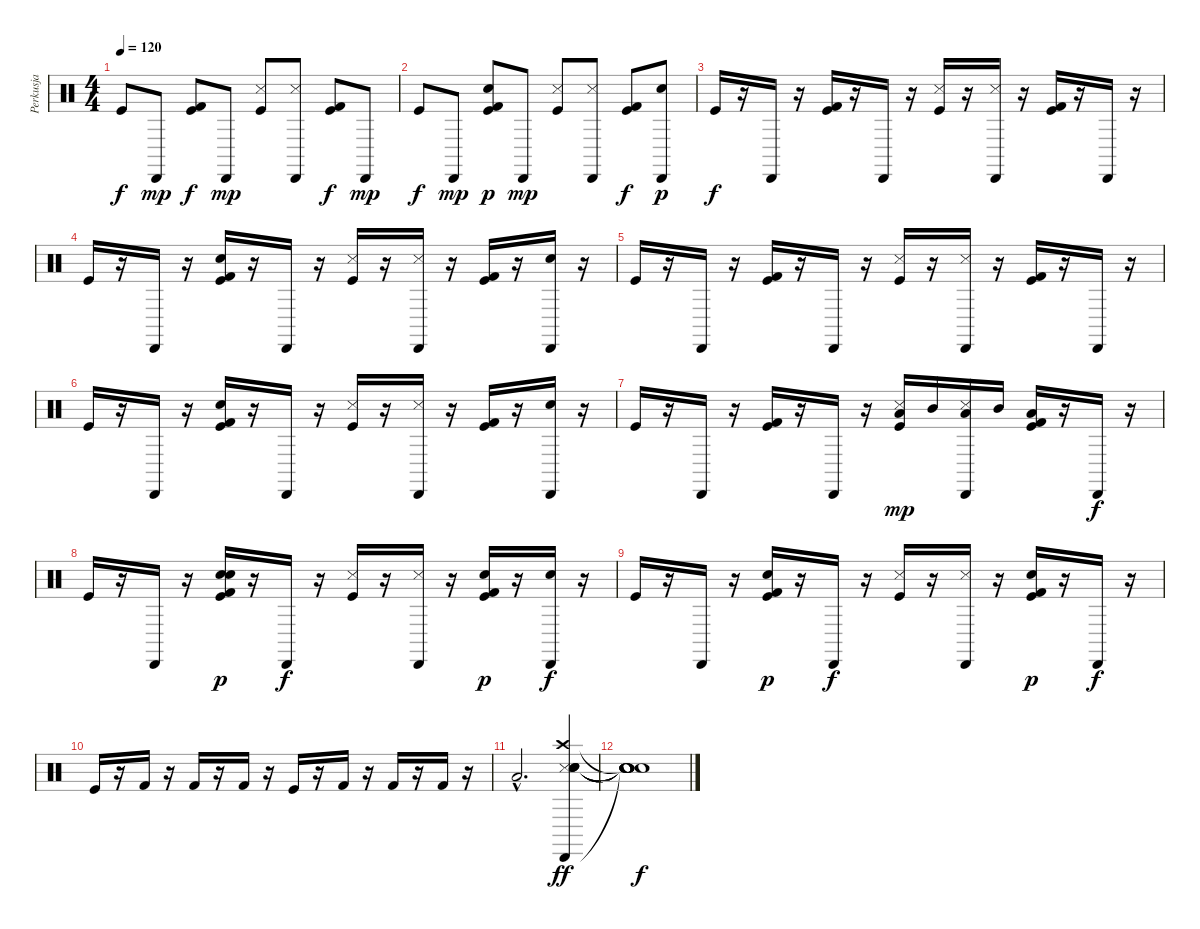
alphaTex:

\track ("Perkusja" "Perkusja") {instrument percussion}
\staff {score}
\articulation defaults
\ts (4 4)
\tempo 120
\clef neutral
\ks c "Kick (hit)".8{dy f} "Cabasa (hit)".8{dy mp}
("Kick (hit)" "Kick (hit) 2").8{dy f} "Cabasa (hit)".8{dy mp} ("Kick (hit)" "Metronome (hit)").8 ("Metronome (hit)" "Cabasa (hit)").8 ("Kick (hit)" "Kick (hit) 2").8{dy f} "Cabasa (hit)".8{dy mp} |
"Kick (hit)".8{dy f} "Cabasa (hit)".8{dy mp} ("Kick (hit)" "Kick (hit) 2" "Metronome (bell)").8{dy p} "Cabasa (hit)".8{dy mp} ("Kick (hit)" "Metronome (hit)").8 ("Metronome (hit)" "Cabasa (hit)").8 ("Kick (hit)" "Kick (hit) 2").8{dy f} ("Cabasa (hit)" "Metronome (bell)").8{dy p} |
"Kick (hit)".16{dy f} r.16 "Cabasa (hit)".16 r.16 ("Kick (hit)" "Kick (hit) 2").16 r.16 "Cabasa (hit)".16 r.16 ("Kick (hit)" "Metronome (hit)").16 r.16 ("Metronome (hit)" "Cabasa (hit)").16 r.16 ("Kick (hit)" "Kick (hit) 2").16 r.16 "Cabasa (hit)".16 r.16 |
"Kick (hit)".16 r.16 "Cabasa (hit)".16 r.16 ("Kick (hit)" "Kick (hit) 2" "Metronome (bell)").16 r.16 "Cabasa (hit)".16 r.16 ("Kick (hit)" "Metronome (hit)").16 r.16 ("Metronome (hit)" "Cabasa (hit)").16 r.16 ("Kick (hit)" "Kick (hit) 2").16 r.16 ("Cabasa (hit)" "Metronome (bell)").16 r.16 |
"Kick (hit)".16 r.16 "Cabasa (hit)".16 r.16 ("Kick (hit)" "Kick (hit) 2").16 r.16 "Cabasa (hit)".16 r.16 ("Kick (hit)" "Metronome (hit)").16 r.16 ("Metronome (hit)" "Cabasa (hit)").16 r.16 ("Kick (hit)" "Kick (hit) 2").16 r.16 "Cabasa (hit)".16 r.16 |
"Kick (hit)".16 r.16 "Cabasa (hit)".16 r.16 ("Kick (hit)" "Kick (hit) 2" "Metronome (bell)").16 r.16 "Cabasa (hit)".16 r.16 ("Kick (hit)" "Metronome (hit)").16 r.16 ("Metronome (hit)" "Cabasa (hit)").16 r.16 ("Kick (hit)" "Kick (hit) 2").16 r.16 ("Cabasa (hit)" "Metronome (bell)").16 r.16 |
"Kick (hit)".16 r.16 "Cabasa (hit)".16 r.16 ("Kick (hit)" "Kick (hit) 2").16 r.16 "Cabasa (hit)".16 r.16 ("Kick (hit)" "Metronome (hit)" "Low Tom (hit)").16{dy mp} "Mid Tom (hit)".16 ("Metronome (hit)" "Low Tom (hit)" "Cabasa (hit)").16 "Mid Tom (hit)".16 ("Kick (hit)" "Kick (hit) 2" "Low Tom (hit)").16 r.16 "Cabasa (hit)".16{dy f} r.16 |
"Kick (hit)".16 r.16 "Cabasa (hit)".16 r.16 ("Kick (hit)" "Kick (hit) 2" "Electric Snare (hit)" "Metronome (bell)").16{dy p} r.16 "Cabasa (hit)".16{dy f} r.16 ("Kick (hit)" "Metronome (hit)").16 r.16 ("Metronome (hit)" "Cabasa (hit)").16 r.16 ("Kick (hit)" "Kick (hit) 2" "Electric Snare (hit)").16{dy p} r.16 ("Cabasa (hit)" "Metronome (bell)").16{dy f} r.16 |
"Kick (hit)".16 r.16 "Cabasa (hit)".16 r.16 ("Kick (hit)" "Kick (hit) 2" "Electric Snare (hit)").16{dy p} r.16 "Cabasa (hit)".16{dy f} r.16 ("Kick (hit)" "Metronome (hit)").16 r.16 ("Metronome (hit)" "Cabasa (hit)").16 r.16 ("Kick (hit)" "Kick (hit) 2" "Electric Snare (hit)").16{dy p} r.16 "Cabasa (hit)".16{dy f} r.16 |
"Kick (hit)".16 r.16 "Kick (hit) 2".16 r.16 "Kick (hit) 2".16 r.16 "Kick (hit) 2".16 r.16 "Kick (hit)".16 r.16 "Kick (hit) 2".16 r.16 "Kick (hit) 2".16 r.16 "Kick (hit) 2".16 r.16 |
"Low Tom (hit)"{hac}.2{d} ("Metronome (hit)" "Electric Snare (hit)" "Snare (hit) 2" "Crash high (hit)" "Cabasa (hit)" "Metronome (bell)").4{dy ff} |
("Snare (hit)"{t} "Snare (hit)"{t} "Snare (hit)"{t} "Snare (hit)"{t} "Snare (hit)"{t} "Snare (hit)"{t}).1{dy f}
